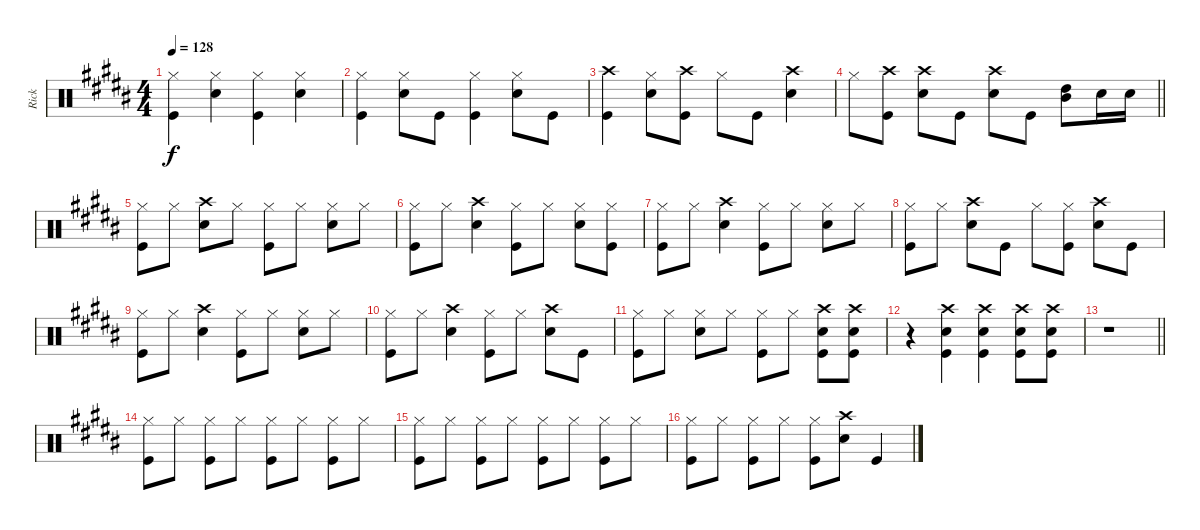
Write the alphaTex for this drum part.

\track ("Rick" "Rick") {instrument percussion}
\staff {score}
\articulation defaults
\ts (4 4)
\tempo 128
\clef neutral
\ks b
("Hi-Hat (closed)" "Kick (hit)").4{dy f} ("Hi-Hat (closed)" "Snare (hit) 2").4 ("Hi-Hat (closed)" "Kick (hit)").4 ("Hi-Hat (closed)" "Snare (hit) 2").4 |
("Hi-Hat (closed)" "Kick (hit)").4 ("Hi-Hat (closed)" "Snare (hit) 2").8 "Kick (hit)".8 ("Hi-Hat (closed)" "Kick (hit)").4 ("Hi-Hat (closed)" "Snare (hit) 2").8 "Kick (hit)".8 |
("Crash high (hit)" "Kick (hit)").4 ("Hi-Hat (closed)" "Snare (hit) 2").8 ("Crash high (hit)" "Kick (hit)").8 "Hi-Hat (closed)".8 "Kick (hit)".8 ("Crash high (hit)" "Snare (hit) 2").4 |
\barLineRight lightlight "Hi-Hat (closed)".8
("Crash high (hit)" "Kick (hit)").8 ("Crash high (hit)" "Snare (hit) 2").8 "Kick (hit)".8 ("Crash high (hit)" "Snare (hit) 2").8 "Kick (hit)".8 ("High Tom (hit)" "Mid Tom (hit)").8 "Snare (hit) 2".16 "Snare (hit) 2".16 |
("Hi-Hat (closed)" "Kick (hit)").8 "Hi-Hat (closed)".8 ("Crash high (hit)" "Snare (hit) 2").8 "Hi-Hat (closed)".8 ("Hi-Hat (closed)" "Kick (hit)").8 "Hi-Hat (closed)".8 ("Hi-Hat (closed)" "Snare (hit) 2").8 "Hi-Hat (closed)".8 |
("Hi-Hat (closed)" "Kick (hit)").8 "Hi-Hat (closed)".8 ("Crash high (hit)" "Snare (hit) 2").4 ("Hi-Hat (closed)" "Kick (hit)").8 "Hi-Hat (closed)".8 ("Hi-Hat (closed)" "Snare (hit) 2").8 ("Hi-Hat (closed)" "Kick (hit)").8 |
("Hi-Hat (closed)" "Kick (hit)").8 "Hi-Hat (closed)".8 ("Crash high (hit)" "Snare (hit) 2").4 ("Hi-Hat (closed)" "Kick (hit)").8 "Hi-Hat (closed)".8 ("Hi-Hat (closed)" "Snare (hit) 2").8 "Hi-Hat (closed)".8 |
("Hi-Hat (closed)" "Kick (hit)").8 "Hi-Hat (closed)".8 ("Crash high (hit)" "Snare (hit) 2").8 "Kick (hit)".8 "Hi-Hat (closed)".8 ("Hi-Hat (closed)" "Kick (hit)").8 ("Crash high (hit)" "Snare (hit) 2").8 "Kick (hit)".8 |
("Hi-Hat (closed)" "Kick (hit)").8 "Hi-Hat (closed)".8 ("Crash high (hit)" "Snare (hit) 2").4 ("Hi-Hat (closed)" "Kick (hit)").8 "Hi-Hat (closed)".8 ("Hi-Hat (closed)" "Snare (hit) 2").8 "Hi-Hat (closed)".8 |
("Hi-Hat (closed)" "Kick (hit)").8 "Hi-Hat (closed)".8 ("Crash high (hit)" "Snare (hit) 2").4 ("Hi-Hat (closed)" "Kick (hit)").8 "Hi-Hat (closed)".8 ("Crash high (hit)" "Snare (hit) 2").8 "Kick (hit)".8 |
("Hi-Hat (closed)" "Kick (hit)").8 "Hi-Hat (closed)".8 ("Hi-Hat (closed)" "Snare (hit) 2").8 "Hi-Hat (closed)".8 ("Hi-Hat (closed)" "Kick (hit)").8 "Hi-Hat (closed)".8 ("Crash high (hit)" "Snare (hit) 2" "Kick (hit)").8 ("Crash high (hit)" "Snare (hit) 2" "Kick (hit)").8 |
r.4 ("Crash high (hit)" "Snare (hit) 2" "Kick (hit)").4 ("Crash high (hit)" "Snare (hit) 2" "Kick (hit)").4 ("Crash high (hit)" "Snare (hit) 2" "Kick (hit)").8 ("Crash high (hit)" "Snare (hit) 2" "Kick (hit)").8 |
\barLineRight lightlight
r.1 |
("Hi-Hat (closed)" "Kick (hit)").8 "Hi-Hat (closed)".8 ("Hi-Hat (closed)" "Kick (hit)").8 "Hi-Hat (closed)".8 ("Hi-Hat (closed)" "Kick (hit)").8 "Hi-Hat (closed)".8 ("Hi-Hat (closed)" "Kick (hit)").8 "Hi-Hat (closed)".8 |
("Hi-Hat (closed)" "Kick (hit)").8 "Hi-Hat (closed)".8 ("Hi-Hat (closed)" "Kick (hit)").8 "Hi-Hat (closed)".8 ("Hi-Hat (closed)" "Kick (hit)").8 "Hi-Hat (closed)".8 ("Hi-Hat (closed)" "Kick (hit)").8 "Hi-Hat (closed)".8 |
("Hi-Hat (closed)" "Kick (hit)").8 "Hi-Hat (closed)".8 ("Hi-Hat (closed)" "Kick (hit)").8 "Hi-Hat (closed)".8 ("Hi-Hat (closed)" "Kick (hit)").8 ("Crash high (hit)" "Snare (hit) 2").8 "Kick (hit)".4
